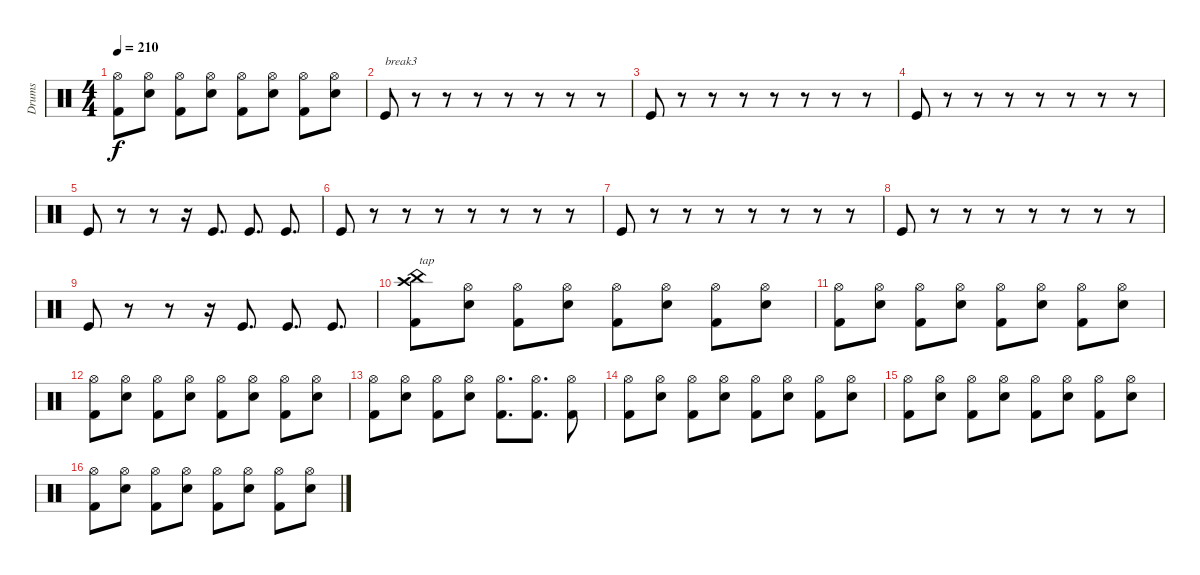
\track ("Drums" "Drums") {instrument percussion}
\staff {score}
\articulation defaults
\ts (4 4)
\tempo 210
\clef neutral
\ks c
("Kick (hit) 2" "Hi-Hat (open)").8{dy f} ("Snare (hit) 2" "Hi-Hat (open)").8 ("Kick (hit) 2" "Hi-Hat (open)").8 ("Snare (hit) 2" "Hi-Hat (open)").8 ("Kick (hit) 2" "Hi-Hat (open)").8 ("Snare (hit) 2" "Hi-Hat (open)").8 ("Kick (hit) 2" "Hi-Hat (open)").8 ("Snare (hit) 2" "Hi-Hat (open)").8 |
"Kick (hit)".8{txt "break3"} r.8 r.8 r.8 r.8 r.8 r.8 r.8 |
"Kick (hit)".8 r.8 r.8 r.8 r.8 r.8 r.8 r.8 |
"Kick (hit)".8 r.8 r.8 r.8 r.8 r.8 r.8 r.8 |
"Kick (hit)".8 r.8 r.8 r.16 "Kick (hit)".8{d} "Kick (hit)".8{d} "Kick (hit)".8{d} |
"Kick (hit)".8 r.8 r.8 r.8 r.8 r.8 r.8 r.8 |
"Kick (hit)".8 r.8 r.8 r.8 r.8 r.8 r.8 r.8 |
"Kick (hit)".8 r.8 r.8 r.8 r.8 r.8 r.8 r.8 |
"Kick (hit)".8 r.8 r.8 r.16 "Kick (hit)".8{d} "Kick (hit)".8{d} "Kick (hit)".8{d} |
("Kick (hit) 2" "China (hit)" "Crash high (hit)").8{txt "tap"} ("Snare (hit) 2" "Hi-Hat (open)").8 ("Kick (hit) 2" "Hi-Hat (open)").8 ("Snare (hit) 2" "Hi-Hat (open)").8 ("Kick (hit) 2" "Hi-Hat (open)").8 ("Snare (hit) 2" "Hi-Hat (open)").8 ("Kick (hit) 2" "Hi-Hat (open)").8 ("Snare (hit) 2" "Hi-Hat (open)").8 |
("Kick (hit) 2" "Hi-Hat (open)").8 ("Snare (hit) 2" "Hi-Hat (open)").8 ("Kick (hit) 2" "Hi-Hat (open)").8 ("Snare (hit) 2" "Hi-Hat (open)").8 ("Kick (hit) 2" "Hi-Hat (open)").8 ("Snare (hit) 2" "Hi-Hat (open)").8 ("Kick (hit) 2" "Hi-Hat (open)").8 ("Snare (hit) 2" "Hi-Hat (open)").8 |
("Kick (hit) 2" "Hi-Hat (open)").8 ("Snare (hit) 2" "Hi-Hat (open)").8 ("Kick (hit) 2" "Hi-Hat (open)").8 ("Snare (hit) 2" "Hi-Hat (open)").8 ("Kick (hit) 2" "Hi-Hat (open)").8 ("Snare (hit) 2" "Hi-Hat (open)").8 ("Kick (hit) 2" "Hi-Hat (open)").8 ("Snare (hit) 2" "Hi-Hat (open)").8 |
("Kick (hit) 2" "Hi-Hat (open)").8 ("Snare (hit) 2" "Hi-Hat (open)").8 ("Kick (hit) 2" "Hi-Hat (open)").8 ("Snare (hit) 2" "Hi-Hat (open)").8 ("Kick (hit) 2" "Hi-Hat (open)").8{d} ("Kick (hit) 2" "Hi-Hat (open)").8{d} ("Kick (hit) 2" "Hi-Hat (open)").8 |
("Kick (hit) 2" "Hi-Hat (open)").8 ("Snare (hit) 2" "Hi-Hat (open)").8 ("Kick (hit) 2" "Hi-Hat (open)").8 ("Snare (hit) 2" "Hi-Hat (open)").8 ("Kick (hit) 2" "Hi-Hat (open)").8 ("Snare (hit) 2" "Hi-Hat (open)").8 ("Kick (hit) 2" "Hi-Hat (open)").8 ("Snare (hit) 2" "Hi-Hat (open)").8 |
("Kick (hit) 2" "Hi-Hat (open)").8 ("Snare (hit) 2" "Hi-Hat (open)").8 ("Kick (hit) 2" "Hi-Hat (open)").8 ("Snare (hit) 2" "Hi-Hat (open)").8 ("Kick (hit) 2" "Hi-Hat (open)").8 ("Snare (hit) 2" "Hi-Hat (open)").8 ("Kick (hit) 2" "Hi-Hat (open)").8 ("Snare (hit) 2" "Hi-Hat (open)").8 |
("Kick (hit) 2" "Hi-Hat (open)").8 ("Snare (hit) 2" "Hi-Hat (open)").8 ("Kick (hit) 2" "Hi-Hat (open)").8 ("Snare (hit) 2" "Hi-Hat (open)").8 ("Kick (hit) 2" "Hi-Hat (open)").8 ("Snare (hit) 2" "Hi-Hat (open)").8 ("Kick (hit) 2" "Hi-Hat (open)").8 ("Snare (hit) 2" "Hi-Hat (open)").8
